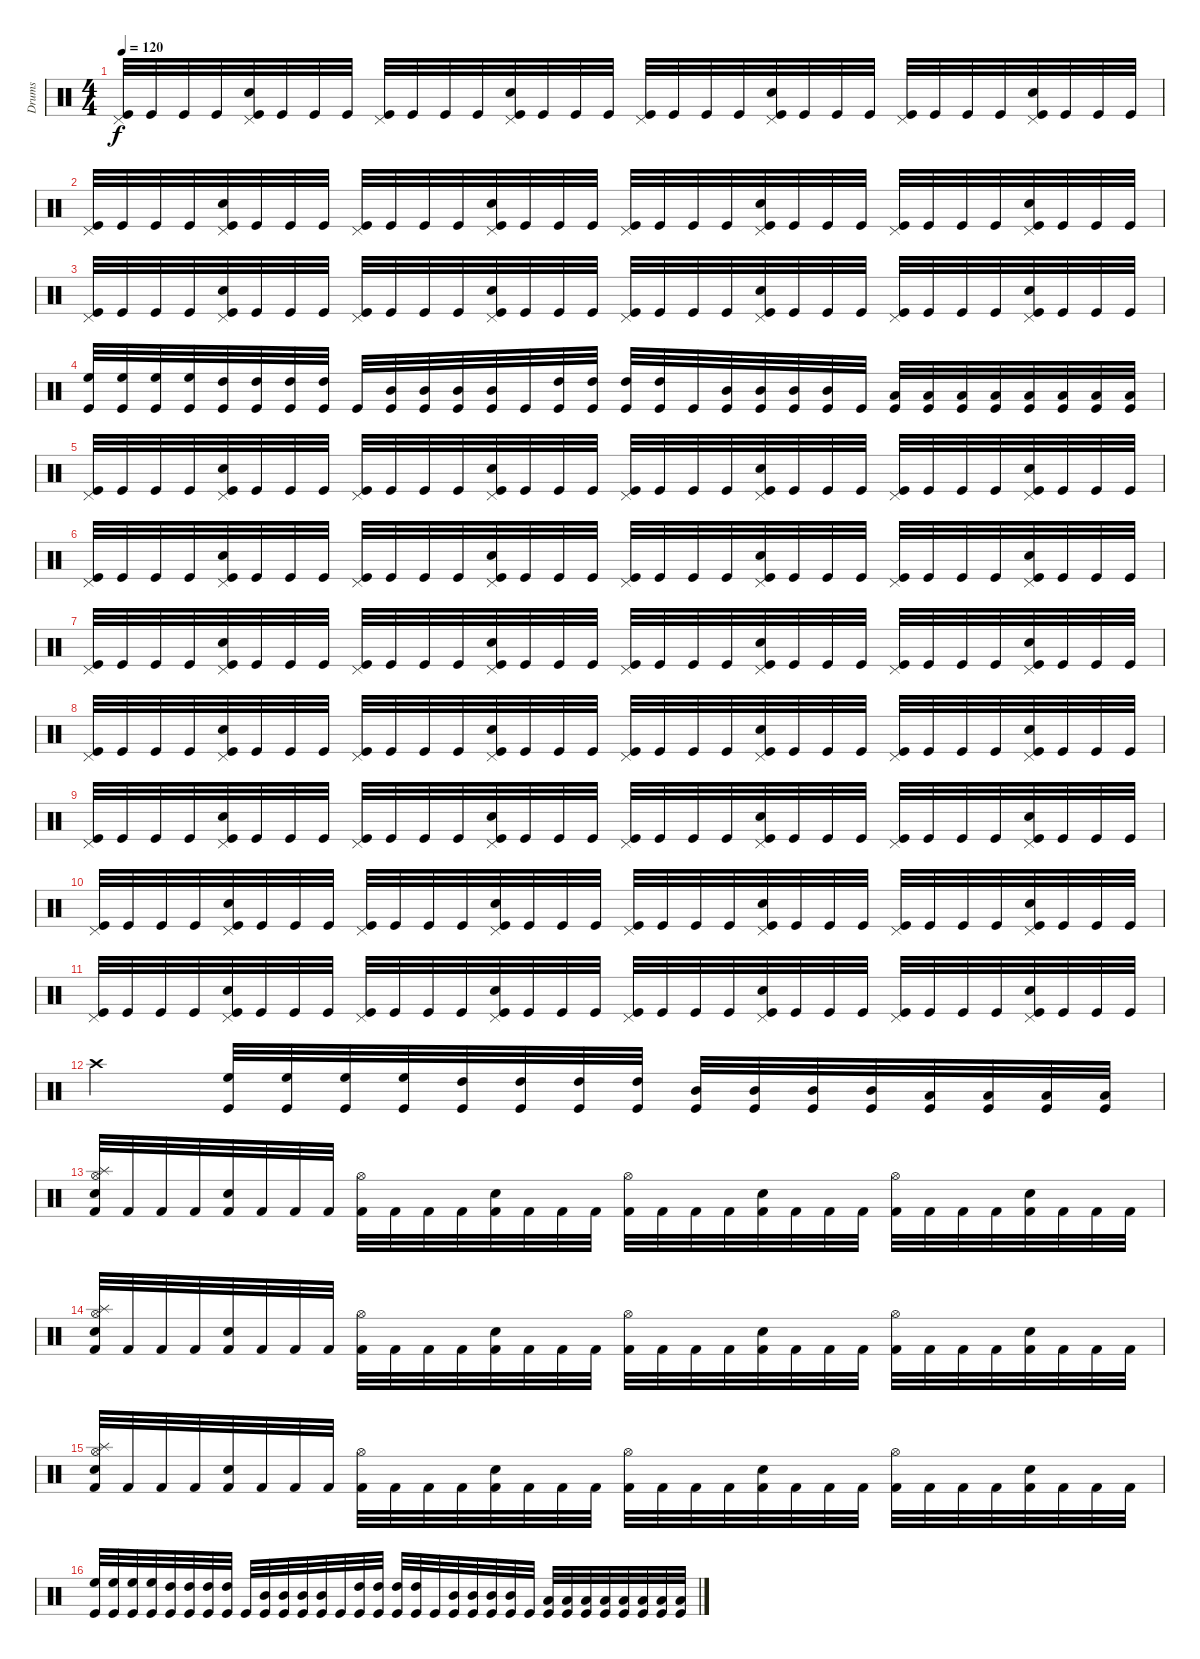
\track ("Drums" "Drums") {instrument percussion}
\staff {score}
\articulation defaults
\ts (4 4)
\tempo 120
\clef neutral
\ks c
("Kick (hit)" "Pedal Hi-Hat (hit)").32{dy f} "Kick (hit)".32 "Kick (hit)".32 "Kick (hit)".32 ("Kick (hit)" "Snare (hit) 2" "Pedal Hi-Hat (hit)").32 "Kick (hit)".32 "Kick (hit)".32 "Kick (hit)".32 ("Kick (hit)" "Pedal Hi-Hat (hit)").32 "Kick (hit)".32 "Kick (hit)".32 "Kick (hit)".32 ("Kick (hit)" "Snare (hit) 2" "Pedal Hi-Hat (hit)").32 "Kick (hit)".32 "Kick (hit)".32 "Kick (hit)".32 ("Kick (hit)" "Pedal Hi-Hat (hit)").32 "Kick (hit)".32 "Kick (hit)".32 "Kick (hit)".32 ("Kick (hit)" "Snare (hit) 2" "Pedal Hi-Hat (hit)").32 "Kick (hit)".32 "Kick (hit)".32 "Kick (hit)".32 ("Kick (hit)" "Pedal Hi-Hat (hit)").32 "Kick (hit)".32 "Kick (hit)".32 "Kick (hit)".32 ("Kick (hit)" "Snare (hit) 2" "Pedal Hi-Hat (hit)").32 "Kick (hit)".32 "Kick (hit)".32 "Kick (hit)".32 |
("Kick (hit)" "Pedal Hi-Hat (hit)").32 "Kick (hit)".32 "Kick (hit)".32 "Kick (hit)".32 ("Kick (hit)" "Snare (hit) 2" "Pedal Hi-Hat (hit)").32 "Kick (hit)".32 "Kick (hit)".32 "Kick (hit)".32 ("Kick (hit)" "Pedal Hi-Hat (hit)").32 "Kick (hit)".32 "Kick (hit)".32 "Kick (hit)".32 ("Kick (hit)" "Snare (hit) 2" "Pedal Hi-Hat (hit)").32 "Kick (hit)".32 "Kick (hit)".32 "Kick (hit)".32 ("Kick (hit)" "Pedal Hi-Hat (hit)").32 "Kick (hit)".32 "Kick (hit)".32 "Kick (hit)".32 ("Kick (hit)" "Snare (hit) 2" "Pedal Hi-Hat (hit)").32 "Kick (hit)".32 "Kick (hit)".32 "Kick (hit)".32 ("Kick (hit)" "Pedal Hi-Hat (hit)").32 "Kick (hit)".32 "Kick (hit)".32 "Kick (hit)".32 ("Kick (hit)" "Snare (hit) 2" "Pedal Hi-Hat (hit)").32 "Kick (hit)".32 "Kick (hit)".32 "Kick (hit)".32 |
("Kick (hit)" "Pedal Hi-Hat (hit)").32 "Kick (hit)".32 "Kick (hit)".32 "Kick (hit)".32 ("Kick (hit)" "Snare (hit) 2" "Pedal Hi-Hat (hit)").32 "Kick (hit)".32 "Kick (hit)".32 "Kick (hit)".32 ("Kick (hit)" "Pedal Hi-Hat (hit)").32 "Kick (hit)".32 "Kick (hit)".32 "Kick (hit)".32 ("Kick (hit)" "Snare (hit) 2" "Pedal Hi-Hat (hit)").32 "Kick (hit)".32 "Kick (hit)".32 "Kick (hit)".32 ("Kick (hit)" "Pedal Hi-Hat (hit)").32 "Kick (hit)".32 "Kick (hit)".32 "Kick (hit)".32 ("Kick (hit)" "Snare (hit) 2" "Pedal Hi-Hat (hit)").32 "Kick (hit)".32 "Kick (hit)".32 "Kick (hit)".32 ("Kick (hit)" "Pedal Hi-Hat (hit)").32 "Kick (hit)".32 "Kick (hit)".32 "Kick (hit)".32 ("Kick (hit)" "Snare (hit) 2" "Pedal Hi-Hat (hit)").32 "Kick (hit)".32 "Kick (hit)".32 "Kick (hit)".32 |
("Kick (hit)" "High Floor Tom (hit)").32 ("Kick (hit)" "High Floor Tom (hit)").32 ("Kick (hit)" "High Floor Tom (hit)").32 ("Kick (hit)" "High Floor Tom (hit)").32 ("Kick (hit)" "High Tom (hit)").32 ("Kick (hit)" "High Tom (hit)").32 ("Kick (hit)" "High Tom (hit)").32 ("Kick (hit)" "High Tom (hit)").32 "Kick (hit)".32 ("Kick (hit)" "Mid Tom (hit)").32 ("Kick (hit)" "Mid Tom (hit)").32 ("Kick (hit)" "Mid Tom (hit)").32 ("Kick (hit)" "Mid Tom (hit)").32 "Kick (hit)".32 ("Kick (hit)" "High Tom (hit)").32 ("Kick (hit)" "High Tom (hit)").32 ("Kick (hit)" "High Tom (hit)").32 ("Kick (hit)" "High Tom (hit)").32 "Kick (hit)".32 ("Kick (hit)" "Mid Tom (hit)").32 ("Kick (hit)" "Mid Tom (hit)").32 ("Kick (hit)" "Mid Tom (hit)").32 ("Kick (hit)" "Mid Tom (hit)").32 "Kick (hit)".32 ("Kick (hit)" "Low Tom (hit)").32 ("Kick (hit)" "Low Tom (hit)").32 ("Kick (hit)" "Low Tom (hit)").32 ("Kick (hit)" "Low Tom (hit)").32 ("Kick (hit)" "Low Tom (hit)").32 ("Kick (hit)" "Low Tom (hit)").32 ("Kick (hit)" "Low Tom (hit)").32 ("Kick (hit)" "Low Tom (hit)").32 |
("Kick (hit)" "Pedal Hi-Hat (hit)").32 "Kick (hit)".32 "Kick (hit)".32 "Kick (hit)".32 ("Kick (hit)" "Snare (hit) 2" "Pedal Hi-Hat (hit)").32 "Kick (hit)".32 "Kick (hit)".32 "Kick (hit)".32 ("Kick (hit)" "Pedal Hi-Hat (hit)").32 "Kick (hit)".32 "Kick (hit)".32 "Kick (hit)".32 ("Kick (hit)" "Snare (hit) 2" "Pedal Hi-Hat (hit)").32 "Kick (hit)".32 "Kick (hit)".32 "Kick (hit)".32 ("Kick (hit)" "Pedal Hi-Hat (hit)").32 "Kick (hit)".32 "Kick (hit)".32 "Kick (hit)".32 ("Kick (hit)" "Snare (hit) 2" "Pedal Hi-Hat (hit)").32 "Kick (hit)".32 "Kick (hit)".32 "Kick (hit)".32 ("Kick (hit)" "Pedal Hi-Hat (hit)").32 "Kick (hit)".32 "Kick (hit)".32 "Kick (hit)".32 ("Kick (hit)" "Snare (hit) 2" "Pedal Hi-Hat (hit)").32 "Kick (hit)".32 "Kick (hit)".32 "Kick (hit)".32 |
("Kick (hit)" "Pedal Hi-Hat (hit)").32 "Kick (hit)".32 "Kick (hit)".32 "Kick (hit)".32 ("Kick (hit)" "Snare (hit) 2" "Pedal Hi-Hat (hit)").32 "Kick (hit)".32 "Kick (hit)".32 "Kick (hit)".32 ("Kick (hit)" "Pedal Hi-Hat (hit)").32 "Kick (hit)".32 "Kick (hit)".32 "Kick (hit)".32 ("Kick (hit)" "Snare (hit) 2" "Pedal Hi-Hat (hit)").32 "Kick (hit)".32 "Kick (hit)".32 "Kick (hit)".32 ("Kick (hit)" "Pedal Hi-Hat (hit)").32 "Kick (hit)".32 "Kick (hit)".32 "Kick (hit)".32 ("Kick (hit)" "Snare (hit) 2" "Pedal Hi-Hat (hit)").32 "Kick (hit)".32 "Kick (hit)".32 "Kick (hit)".32 ("Kick (hit)" "Pedal Hi-Hat (hit)").32 "Kick (hit)".32 "Kick (hit)".32 "Kick (hit)".32 ("Kick (hit)" "Snare (hit) 2" "Pedal Hi-Hat (hit)").32 "Kick (hit)".32 "Kick (hit)".32 "Kick (hit)".32 |
("Kick (hit)" "Pedal Hi-Hat (hit)").32 "Kick (hit)".32 "Kick (hit)".32 "Kick (hit)".32 ("Kick (hit)" "Snare (hit) 2" "Pedal Hi-Hat (hit)").32 "Kick (hit)".32 "Kick (hit)".32 "Kick (hit)".32 ("Kick (hit)" "Pedal Hi-Hat (hit)").32 "Kick (hit)".32 "Kick (hit)".32 "Kick (hit)".32 ("Kick (hit)" "Snare (hit) 2" "Pedal Hi-Hat (hit)").32 "Kick (hit)".32 "Kick (hit)".32 "Kick (hit)".32 ("Kick (hit)" "Pedal Hi-Hat (hit)").32 "Kick (hit)".32 "Kick (hit)".32 "Kick (hit)".32 ("Kick (hit)" "Snare (hit) 2" "Pedal Hi-Hat (hit)").32 "Kick (hit)".32 "Kick (hit)".32 "Kick (hit)".32 ("Kick (hit)" "Pedal Hi-Hat (hit)").32 "Kick (hit)".32 "Kick (hit)".32 "Kick (hit)".32 ("Kick (hit)" "Snare (hit) 2" "Pedal Hi-Hat (hit)").32 "Kick (hit)".32 "Kick (hit)".32 "Kick (hit)".32 |
("Kick (hit)" "Pedal Hi-Hat (hit)").32 "Kick (hit)".32 "Kick (hit)".32 "Kick (hit)".32 ("Kick (hit)" "Snare (hit) 2" "Pedal Hi-Hat (hit)").32 "Kick (hit)".32 "Kick (hit)".32 "Kick (hit)".32 ("Kick (hit)" "Pedal Hi-Hat (hit)").32 "Kick (hit)".32 "Kick (hit)".32 "Kick (hit)".32 ("Kick (hit)" "Snare (hit) 2" "Pedal Hi-Hat (hit)").32 "Kick (hit)".32 "Kick (hit)".32 "Kick (hit)".32 ("Kick (hit)" "Pedal Hi-Hat (hit)").32 "Kick (hit)".32 "Kick (hit)".32 "Kick (hit)".32 ("Kick (hit)" "Snare (hit) 2" "Pedal Hi-Hat (hit)").32 "Kick (hit)".32 "Kick (hit)".32 "Kick (hit)".32 ("Kick (hit)" "Pedal Hi-Hat (hit)").32 "Kick (hit)".32 "Kick (hit)".32 "Kick (hit)".32 ("Kick (hit)" "Snare (hit) 2" "Pedal Hi-Hat (hit)").32 "Kick (hit)".32 "Kick (hit)".32 "Kick (hit)".32 |
("Kick (hit)" "Pedal Hi-Hat (hit)").32 "Kick (hit)".32 "Kick (hit)".32 "Kick (hit)".32 ("Kick (hit)" "Snare (hit) 2" "Pedal Hi-Hat (hit)").32 "Kick (hit)".32 "Kick (hit)".32 "Kick (hit)".32 ("Kick (hit)" "Pedal Hi-Hat (hit)").32 "Kick (hit)".32 "Kick (hit)".32 "Kick (hit)".32 ("Kick (hit)" "Snare (hit) 2" "Pedal Hi-Hat (hit)").32 "Kick (hit)".32 "Kick (hit)".32 "Kick (hit)".32 ("Kick (hit)" "Pedal Hi-Hat (hit)").32 "Kick (hit)".32 "Kick (hit)".32 "Kick (hit)".32 ("Kick (hit)" "Snare (hit) 2" "Pedal Hi-Hat (hit)").32 "Kick (hit)".32 "Kick (hit)".32 "Kick (hit)".32 ("Kick (hit)" "Pedal Hi-Hat (hit)").32 "Kick (hit)".32 "Kick (hit)".32 "Kick (hit)".32 ("Kick (hit)" "Snare (hit) 2" "Pedal Hi-Hat (hit)").32 "Kick (hit)".32 "Kick (hit)".32 "Kick (hit)".32 |
("Kick (hit)" "Pedal Hi-Hat (hit)").32 "Kick (hit)".32 "Kick (hit)".32 "Kick (hit)".32 ("Kick (hit)" "Snare (hit) 2" "Pedal Hi-Hat (hit)").32 "Kick (hit)".32 "Kick (hit)".32 "Kick (hit)".32 ("Kick (hit)" "Pedal Hi-Hat (hit)").32 "Kick (hit)".32 "Kick (hit)".32 "Kick (hit)".32 ("Kick (hit)" "Snare (hit) 2" "Pedal Hi-Hat (hit)").32 "Kick (hit)".32 "Kick (hit)".32 "Kick (hit)".32 ("Kick (hit)" "Pedal Hi-Hat (hit)").32 "Kick (hit)".32 "Kick (hit)".32 "Kick (hit)".32 ("Kick (hit)" "Snare (hit) 2" "Pedal Hi-Hat (hit)").32 "Kick (hit)".32 "Kick (hit)".32 "Kick (hit)".32 ("Kick (hit)" "Pedal Hi-Hat (hit)").32 "Kick (hit)".32 "Kick (hit)".32 "Kick (hit)".32 ("Kick (hit)" "Snare (hit) 2" "Pedal Hi-Hat (hit)").32 "Kick (hit)".32 "Kick (hit)".32 "Kick (hit)".32 |
("Kick (hit)" "Pedal Hi-Hat (hit)").32 "Kick (hit)".32 "Kick (hit)".32 "Kick (hit)".32 ("Kick (hit)" "Snare (hit) 2" "Pedal Hi-Hat (hit)").32 "Kick (hit)".32 "Kick (hit)".32 "Kick (hit)".32 ("Kick (hit)" "Pedal Hi-Hat (hit)").32 "Kick (hit)".32 "Kick (hit)".32 "Kick (hit)".32 ("Kick (hit)" "Snare (hit) 2" "Pedal Hi-Hat (hit)").32 "Kick (hit)".32 "Kick (hit)".32 "Kick (hit)".32 ("Kick (hit)" "Pedal Hi-Hat (hit)").32 "Kick (hit)".32 "Kick (hit)".32 "Kick (hit)".32 ("Kick (hit)" "Snare (hit) 2" "Pedal Hi-Hat (hit)").32 "Kick (hit)".32 "Kick (hit)".32 "Kick (hit)".32 ("Kick (hit)" "Pedal Hi-Hat (hit)").32 "Kick (hit)".32 "Kick (hit)".32 "Kick (hit)".32 ("Kick (hit)" "Snare (hit) 2" "Pedal Hi-Hat (hit)").32 "Kick (hit)".32 "Kick (hit)".32 "Kick (hit)".32 |
"Crash high (hit)".2 ("Kick (hit)" "High Floor Tom (hit)").32 ("Kick (hit)" "High Floor Tom (hit)").32 ("Kick (hit)" "High Floor Tom (hit)").32 ("Kick (hit)" "High Floor Tom (hit)").32 ("Kick (hit)" "High Tom (hit)").32 ("Kick (hit)" "High Tom (hit)").32 ("Kick (hit)" "High Tom (hit)").32 ("Kick (hit)" "High Tom (hit)").32 ("Kick (hit)" "Mid Tom (hit)").32 ("Kick (hit)" "Mid Tom (hit)").32 ("Kick (hit)" "Mid Tom (hit)").32 ("Kick (hit)" "Mid Tom (hit)").32 ("Kick (hit)" "Low Tom (hit)").32 ("Kick (hit)" "Low Tom (hit)").32 ("Kick (hit)" "Low Tom (hit)").32 ("Kick (hit)" "Low Tom (hit)").32 |
("Snare (hit) 2" "Splash (hit)" "Hi-Hat (open)" "Kick (hit) 2").32 "Kick (hit) 2".32 "Kick (hit) 2".32 "Kick (hit) 2".32 ("Snare (hit) 2" "Kick (hit) 2").32 "Kick (hit) 2".32 "Kick (hit) 2".32 "Kick (hit) 2".32 ("Hi-Hat (open)" "Kick (hit) 2").32 "Kick (hit) 2".32 "Kick (hit) 2".32 "Kick (hit) 2".32 ("Snare (hit) 2" "Kick (hit) 2").32 "Kick (hit) 2".32 "Kick (hit) 2".32 "Kick (hit) 2".32 ("Hi-Hat (open)" "Kick (hit) 2").32 "Kick (hit) 2".32 "Kick (hit) 2".32 "Kick (hit) 2".32 ("Snare (hit) 2" "Kick (hit) 2").32 "Kick (hit) 2".32 "Kick (hit) 2".32 "Kick (hit) 2".32 ("Hi-Hat (open)" "Kick (hit) 2").32 "Kick (hit) 2".32 "Kick (hit) 2".32 "Kick (hit) 2".32 ("Snare (hit) 2" "Kick (hit) 2").32 "Kick (hit) 2".32 "Kick (hit) 2".32 "Kick (hit) 2".32 |
("Snare (hit) 2" "Splash (hit)" "Hi-Hat (open)" "Kick (hit) 2").32 "Kick (hit) 2".32 "Kick (hit) 2".32 "Kick (hit) 2".32 ("Snare (hit) 2" "Kick (hit) 2").32 "Kick (hit) 2".32 "Kick (hit) 2".32 "Kick (hit) 2".32 ("Hi-Hat (open)" "Kick (hit) 2").32 "Kick (hit) 2".32 "Kick (hit) 2".32 "Kick (hit) 2".32 ("Snare (hit) 2" "Kick (hit) 2").32 "Kick (hit) 2".32 "Kick (hit) 2".32 "Kick (hit) 2".32 ("Hi-Hat (open)" "Kick (hit) 2").32 "Kick (hit) 2".32 "Kick (hit) 2".32 "Kick (hit) 2".32 ("Snare (hit) 2" "Kick (hit) 2").32 "Kick (hit) 2".32 "Kick (hit) 2".32 "Kick (hit) 2".32 ("Hi-Hat (open)" "Kick (hit) 2").32 "Kick (hit) 2".32 "Kick (hit) 2".32 "Kick (hit) 2".32 ("Snare (hit) 2" "Kick (hit) 2").32 "Kick (hit) 2".32 "Kick (hit) 2".32 "Kick (hit) 2".32 |
("Snare (hit) 2" "Splash (hit)" "Hi-Hat (open)" "Kick (hit) 2").32 "Kick (hit) 2".32 "Kick (hit) 2".32 "Kick (hit) 2".32 ("Snare (hit) 2" "Kick (hit) 2").32 "Kick (hit) 2".32 "Kick (hit) 2".32 "Kick (hit) 2".32 ("Hi-Hat (open)" "Kick (hit) 2").32 "Kick (hit) 2".32 "Kick (hit) 2".32 "Kick (hit) 2".32 ("Snare (hit) 2" "Kick (hit) 2").32 "Kick (hit) 2".32 "Kick (hit) 2".32 "Kick (hit) 2".32 ("Hi-Hat (open)" "Kick (hit) 2").32 "Kick (hit) 2".32 "Kick (hit) 2".32 "Kick (hit) 2".32 ("Snare (hit) 2" "Kick (hit) 2").32 "Kick (hit) 2".32 "Kick (hit) 2".32 "Kick (hit) 2".32 ("Hi-Hat (open)" "Kick (hit) 2").32 "Kick (hit) 2".32 "Kick (hit) 2".32 "Kick (hit) 2".32 ("Snare (hit) 2" "Kick (hit) 2").32 "Kick (hit) 2".32 "Kick (hit) 2".32 "Kick (hit) 2".32 |
("Kick (hit)" "High Floor Tom (hit)").32 ("Kick (hit)" "High Floor Tom (hit)").32 ("Kick (hit)" "High Floor Tom (hit)").32 ("Kick (hit)" "High Floor Tom (hit)").32 ("Kick (hit)" "High Tom (hit)").32 ("Kick (hit)" "High Tom (hit)").32 ("Kick (hit)" "High Tom (hit)").32 ("Kick (hit)" "High Tom (hit)").32 "Kick (hit)".32 ("Kick (hit)" "Mid Tom (hit)").32 ("Kick (hit)" "Mid Tom (hit)").32 ("Kick (hit)" "Mid Tom (hit)").32 ("Kick (hit)" "Mid Tom (hit)").32 "Kick (hit)".32 ("Kick (hit)" "High Tom (hit)").32 ("Kick (hit)" "High Tom (hit)").32 ("Kick (hit)" "High Tom (hit)").32 ("Kick (hit)" "High Tom (hit)").32 "Kick (hit)".32 ("Kick (hit)" "Mid Tom (hit)").32 ("Kick (hit)" "Mid Tom (hit)").32 ("Kick (hit)" "Mid Tom (hit)").32 ("Kick (hit)" "Mid Tom (hit)").32 "Kick (hit)".32 ("Kick (hit)" "Low Tom (hit)").32 ("Kick (hit)" "Low Tom (hit)").32 ("Kick (hit)" "Low Tom (hit)").32 ("Kick (hit)" "Low Tom (hit)").32 ("Kick (hit)" "Low Tom (hit)").32 ("Kick (hit)" "Low Tom (hit)").32 ("Kick (hit)" "Low Tom (hit)").32 ("Kick (hit)" "Low Tom (hit)").32
